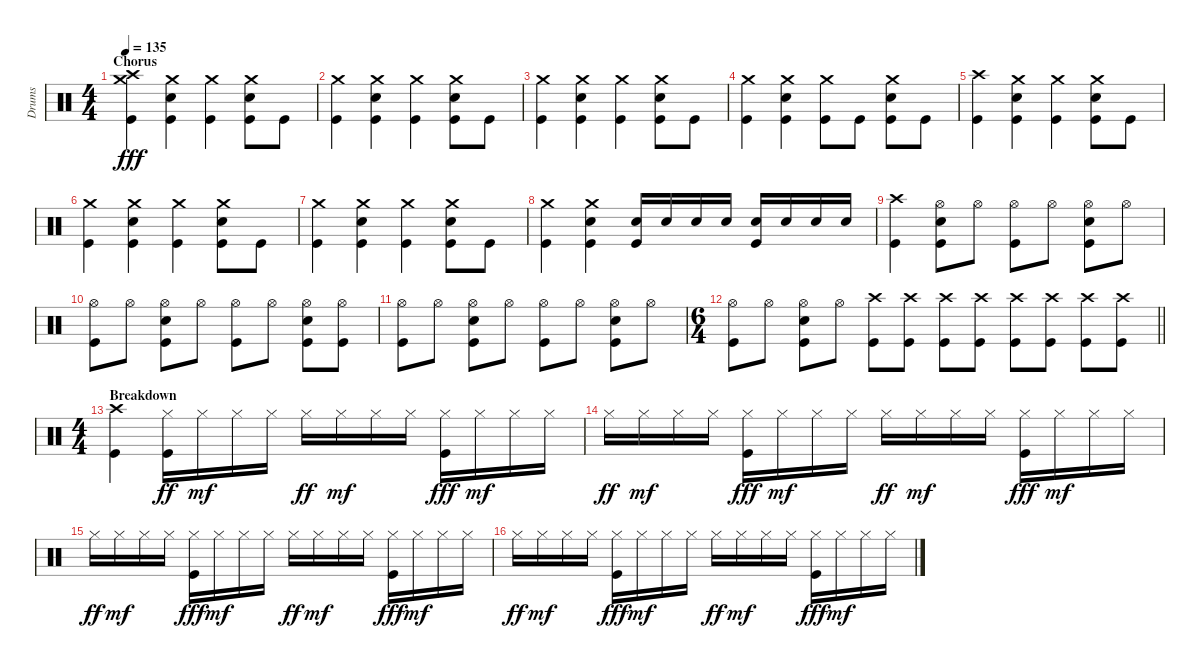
\track ("Drums" "Drums") {instrument percussion}
\staff {score}
\articulation defaults
\ts (4 4)
\section ("" "Chorus")
\tempo 135
\clef neutral
\ks c
("Crash medium (hit)" "Crash high (hit)" "Kick (hit)").4{dy fff} ("Crash medium (hit)" "Snare (hit) 2" "Kick (hit)").4 ("Crash medium (hit)" "Kick (hit)").4 ("Crash medium (hit)" "Snare (hit) 2" "Kick (hit)").8 "Kick (hit)".8 |
("Crash medium (hit)" "Kick (hit)").4 ("Crash medium (hit)" "Snare (hit) 2" "Kick (hit)").4 ("Crash medium (hit)" "Kick (hit)").4 ("Crash medium (hit)" "Snare (hit) 2" "Kick (hit)").8 "Kick (hit)".8 |
("Crash medium (hit)" "Kick (hit)").4 ("Crash medium (hit)" "Snare (hit) 2" "Kick (hit)").4 ("Crash medium (hit)" "Kick (hit)").4 ("Crash medium (hit)" "Snare (hit) 2" "Kick (hit)").8 "Kick (hit)".8 |
("Crash medium (hit)" "Kick (hit)").4 ("Crash medium (hit)" "Snare (hit) 2" "Kick (hit)").4 ("Crash medium (hit)" "Kick (hit)").8 "Kick (hit)".8 ("Crash medium (hit)" "Snare (hit) 2" "Kick (hit)").8 "Kick (hit)".8 |
("Crash high (hit)" "Kick (hit)").4 ("Crash medium (hit)" "Snare (hit) 2" "Kick (hit)").4 ("Crash medium (hit)" "Kick (hit)").4 ("Crash medium (hit)" "Snare (hit) 2" "Kick (hit)").8 "Kick (hit)".8 |
("Crash medium (hit)" "Kick (hit)").4 ("Crash medium (hit)" "Snare (hit) 2" "Kick (hit)").4 ("Crash medium (hit)" "Kick (hit)").4 ("Crash medium (hit)" "Snare (hit) 2" "Kick (hit)").8 "Kick (hit)".8 |
("Crash medium (hit)" "Kick (hit)").4 ("Crash medium (hit)" "Snare (hit) 2" "Kick (hit)").4 ("Crash medium (hit)" "Kick (hit)").4 ("Crash medium (hit)" "Snare (hit) 2" "Kick (hit)").8 "Kick (hit)".8 |
("Crash medium (hit)" "Kick (hit)").4 ("Crash medium (hit)" "Snare (hit) 2" "Kick (hit)").4 ("Snare (hit) 2" "Kick (hit)").16 "Snare (hit) 2".16 "Snare (hit) 2".16 "Snare (hit) 2".16 ("Snare (hit) 2" "Kick (hit)").16 "Snare (hit) 2".16 "Snare (hit) 2".16 "Snare (hit) 2".16 |
("Crash high (hit)" "Kick (hit)").4 ("Hi-Hat (open)" "Snare (hit) 2" "Kick (hit)").8 "Hi-Hat (open)".8 ("Hi-Hat (open)" "Kick (hit)").8 "Hi-Hat (open)".8 ("Hi-Hat (open)" "Snare (hit) 2" "Kick (hit)").8 "Hi-Hat (open)".8 |
("Hi-Hat (open)" "Kick (hit)").8 "Hi-Hat (open)".8 ("Hi-Hat (open)" "Snare (hit) 2" "Kick (hit)").8 "Hi-Hat (open)".8 ("Hi-Hat (open)" "Kick (hit)").8 "Hi-Hat (open)".8 ("Hi-Hat (open)" "Snare (hit) 2" "Kick (hit)").8 ("Hi-Hat (open)" "Kick (hit)").8 |
("Hi-Hat (open)" "Kick (hit)").8 "Hi-Hat (open)".8 ("Hi-Hat (open)" "Snare (hit) 2" "Kick (hit)").8 "Hi-Hat (open)".8 ("Hi-Hat (open)" "Kick (hit)").8 "Hi-Hat (open)".8 ("Hi-Hat (open)" "Snare (hit) 2" "Kick (hit)").8 "Hi-Hat (open)".8 |
\ts (6 4)
\barLineRight lightlight
("Hi-Hat (open)" "Kick (hit)").8 "Hi-Hat (open)".8 ("Hi-Hat (open)" "Snare (hit) 2" "Kick (hit)").8 "Hi-Hat (open)".8 ("Crash high (hit)" "Kick (hit)").8 ("Crash high (hit)" "Kick (hit)").8 ("Crash high (hit)" "Kick (hit)").8 ("Crash high (hit)" "Kick (hit)").8 ("Crash high (hit)" "Kick (hit)").8 ("Crash high (hit)" "Kick (hit)").8 ("Crash high (hit)" "Kick (hit)").8 ("Crash high (hit)" "Kick (hit)").8 |
\ts (4 4)
\section ("" "Breakdown")
("Crash high (hit)" "Kick (hit)").4 ("Hi-Hat (closed)" "Kick (hit)").16{dy ff} "Hi-Hat (closed)".16{dy mf} "Hi-Hat (closed)".16 "Hi-Hat (closed)".16 "Hi-Hat (closed)".16{dy ff} "Hi-Hat (closed)".16{dy mf} "Hi-Hat (closed)".16 "Hi-Hat (closed)".16 ("Hi-Hat (closed)" "Kick (hit)").16{dy fff} "Hi-Hat (closed)".16{dy mf} "Hi-Hat (closed)".16 "Hi-Hat (closed)".16 |
"Hi-Hat (closed)".16{dy ff} "Hi-Hat (closed)".16{dy mf} "Hi-Hat (closed)".16 "Hi-Hat (closed)".16 ("Hi-Hat (closed)" "Kick (hit)").16{dy fff} "Hi-Hat (closed)".16{dy mf} "Hi-Hat (closed)".16 "Hi-Hat (closed)".16 "Hi-Hat (closed)".16{dy ff} "Hi-Hat (closed)".16{dy mf} "Hi-Hat (closed)".16 "Hi-Hat (closed)".16 ("Hi-Hat (closed)" "Kick (hit)").16{dy fff} "Hi-Hat (closed)".16{dy mf} "Hi-Hat (closed)".16 "Hi-Hat (closed)".16 |
"Hi-Hat (closed)".16{dy ff} "Hi-Hat (closed)".16{dy mf} "Hi-Hat (closed)".16 "Hi-Hat (closed)".16 ("Hi-Hat (closed)" "Kick (hit)").16{dy fff} "Hi-Hat (closed)".16{dy mf} "Hi-Hat (closed)".16 "Hi-Hat (closed)".16 "Hi-Hat (closed)".16{dy ff} "Hi-Hat (closed)".16{dy mf} "Hi-Hat (closed)".16 "Hi-Hat (closed)".16 ("Hi-Hat (closed)" "Kick (hit)").16{dy fff} "Hi-Hat (closed)".16{dy mf} "Hi-Hat (closed)".16 "Hi-Hat (closed)".16 |
"Hi-Hat (closed)".16{dy ff} "Hi-Hat (closed)".16{dy mf} "Hi-Hat (closed)".16 "Hi-Hat (closed)".16 ("Hi-Hat (closed)" "Kick (hit)").16{dy fff} "Hi-Hat (closed)".16{dy mf} "Hi-Hat (closed)".16 "Hi-Hat (closed)".16 "Hi-Hat (closed)".16{dy ff} "Hi-Hat (closed)".16{dy mf} "Hi-Hat (closed)".16 "Hi-Hat (closed)".16 ("Hi-Hat (closed)" "Kick (hit)").16{dy fff} "Hi-Hat (closed)".16{dy mf} "Hi-Hat (closed)".16 "Hi-Hat (closed)".16
